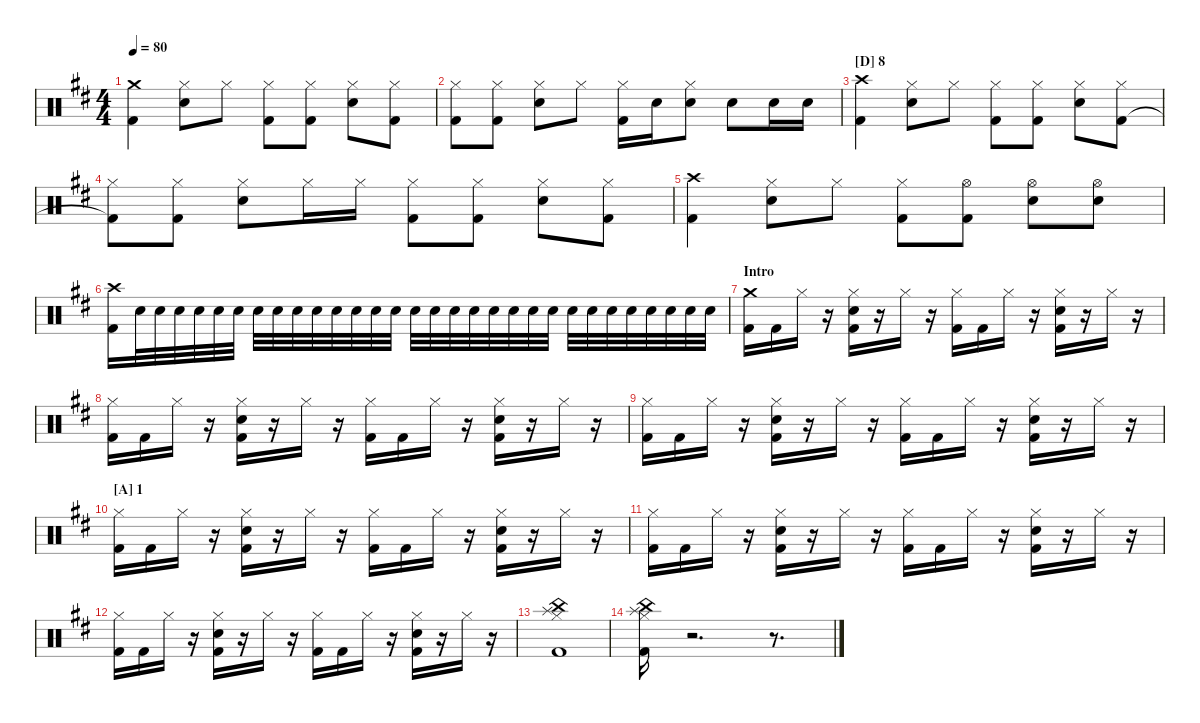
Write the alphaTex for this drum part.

\hideDynamics
\bracketExtendMode nobrackets
\singleTrackTrackNamePolicy hidden
\multiTrackTrackNamePolicy hidden
\otherSystemsTrackNameOrientation horizontal
\track ("Drumkit" "Drums") {instrument percussion}
\staff {score}
\articulation defaults
\ts (4 4)
\tempo 80
\clef neutral
\ks d
("Crash medium (hit)"{acc forcenatural} "Kick (hit) 2"{acc forcenatural}).4{dy f beam Down} ("Hi-Hat (closed)"{acc forcenatural} "Snare (hit) 2"{acc forcenatural}).8{beam Down} "Hi-Hat (closed)"{acc forcenatural}.8{beam Down} ("Hi-Hat (closed)"{acc forcenatural} "Kick (hit) 2"{acc forcenatural}).8{beam Down} ("Hi-Hat (closed)"{acc forcenatural} "Kick (hit) 2"{acc forcenatural}).8{beam Down} ("Hi-Hat (closed)"{acc forcenatural} "Snare (hit) 2"{acc forcenatural}).8{beam Down} ("Hi-Hat (closed)"{acc forcenatural} "Kick (hit) 2"{acc forcenatural}).8{beam Down} |
("Hi-Hat (closed)"{acc forcenatural} "Kick (hit) 2"{acc forcenatural}).8{beam Down} ("Hi-Hat (closed)"{acc forcenatural} "Kick (hit) 2"{acc forcenatural}).8{beam Down} ("Hi-Hat (closed)"{acc forcenatural} "Snare (hit) 2"{acc forcenatural}).8{beam Down} "Hi-Hat (closed)"{acc forcenatural}.8{beam Down} ("Hi-Hat (closed)"{acc forcenatural} "Kick (hit) 2"{acc forcenatural}).16{beam Down} "Snare (hit) 2"{acc forcenatural}.16{beam Down} ("Hi-Hat (closed)"{acc forcenatural} "Snare (hit) 2"{acc forcenatural}).8{beam Down} "Snare (hit) 2"{acc forcenatural}.8{beam Down} "Snare (hit) 2"{acc forcenatural}.16{beam Down} "Snare (hit) 2"{acc forcenatural}.16{beam Down} |
\section ("D" "8")
("Crash high (hit)"{acc forcenatural} "Kick (hit) 2"{acc forcenatural}).4{beam Down} ("Hi-Hat (closed)"{acc forcenatural} "Snare (hit) 2"{acc forcenatural}).8{beam Down} "Hi-Hat (closed)"{acc forcenatural}.8{beam Down} ("Hi-Hat (closed)"{acc forcenatural} "Kick (hit) 2"{acc forcenatural}).8{beam Down} ("Hi-Hat (closed)"{acc forcenatural} "Kick (hit) 2"{acc forcenatural}).8{beam Down} ("Hi-Hat (closed)"{acc forcenatural} "Snare (hit) 2"{acc forcenatural}).8{beam Down} ("Hi-Hat (closed)"{acc forcenatural} "Kick (hit) 2"{acc forcenatural}).8{beam Down} |
("Hi-Hat (closed)"{acc forcenatural} "Kick (hit) 2"{t acc forcenatural}).8{beam Down} ("Hi-Hat (closed)"{acc forcenatural} "Kick (hit) 2"{acc forcenatural}).8{beam Down} ("Hi-Hat (closed)"{acc forcenatural} "Snare (hit) 2"{acc forcenatural}).8{beam Down} "Hi-Hat (closed)"{acc forcenatural}.16{beam Down} "Hi-Hat (closed)"{acc forcenatural}.16{beam Down} ("Hi-Hat (closed)"{acc forcenatural} "Kick (hit) 2"{acc forcenatural}).8{beam Down} ("Hi-Hat (closed)"{acc forcenatural} "Kick (hit) 2"{acc forcenatural}).8{beam Down} ("Hi-Hat (closed)"{acc forcenatural} "Snare (hit) 2"{acc forcenatural}).8{beam Down} ("Hi-Hat (closed)"{acc forcenatural} "Kick (hit) 2"{acc forcenatural}).8{beam Down} |
("Crash high (hit)"{acc forcenatural} "Kick (hit) 2"{acc forcenatural}).4{beam Down} ("Hi-Hat (closed)"{acc forcenatural} "Snare (hit) 2"{acc forcenatural}).8{beam Down} "Hi-Hat (closed)"{acc forcenatural}.8{beam Down} ("Hi-Hat (closed)"{acc forcenatural} "Kick (hit) 2"{acc forcenatural}).8{beam Down} ("Hi-Hat (open)"{acc forcenatural} "Kick (hit) 2"{acc forcenatural}).8{beam Down} ("Hi-Hat (open)"{acc forcenatural} "Snare (hit) 2"{acc forcenatural}).8{beam Down} ("Hi-Hat (open)"{acc forcenatural} "Snare (hit) 2"{acc forcenatural}).8{beam Down} |
("Crash high (hit)"{acc forcenatural} "Kick (hit) 2"{acc forcenatural}).16{beam Down} "Snare (hit) 2"{acc forcenatural}.32{beam Down} "Snare (hit) 2"{acc forcenatural}.32{beam Down} "Snare (hit) 2"{acc forcenatural}.32{beam Down} "Snare (hit) 2"{acc forcenatural}.32{beam Down} "Snare (hit) 2"{acc forcenatural}.32{beam Down} "Snare (hit) 2"{acc forcenatural}.32{beam Down} "Snare (hit) 2"{acc forcenatural}.32{beam Down} "Snare (hit) 2"{acc forcenatural}.32{beam Down} "Snare (hit) 2"{acc forcenatural}.32{beam Down} "Snare (hit) 2"{acc forcenatural}.32{beam Down} "Snare (hit) 2"{acc forcenatural}.32{beam Down} "Snare (hit) 2"{acc forcenatural}.32{beam Down} "Snare (hit) 2"{acc forcenatural}.32{beam Down} "Snare (hit) 2"{acc forcenatural}.32{beam Down} "Snare (hit) 2"{acc forcenatural}.32{beam Down} "Snare (hit) 2"{acc forcenatural}.32{beam Down} "Snare (hit) 2"{acc forcenatural}.32{beam Down} "Snare (hit) 2"{acc forcenatural}.32{beam Down} "Snare (hit) 2"{acc forcenatural}.32{beam Down} "Snare (hit) 2"{acc forcenatural}.32{beam Down} "Snare (hit) 2"{acc forcenatural}.32{beam Down} "Snare (hit) 2"{acc forcenatural}.32{beam Down} "Snare (hit) 2"{acc forcenatural}.32{beam Down} "Snare (hit) 2"{acc forcenatural}.32{beam Down} "Snare (hit) 2"{acc forcenatural}.32{beam Down} "Snare (hit) 2"{acc forcenatural}.32{beam Down} "Snare (hit) 2"{acc forcenatural}.32{beam Down} "Snare (hit) 2"{acc forcenatural}.32{beam Down} "Snare (hit) 2"{acc forcenatural}.32{beam Down} "Snare (hit) 2"{acc forcenatural}.32{beam Down} |
\section ("" "Intro")
("Crash medium (hit)"{acc forcenatural} "Kick (hit) 2"{acc forcenatural}).16{beam Down} "Kick (hit) 2"{acc forcenatural}.16{beam Down} "Hi-Hat (closed)"{acc forcenatural}.16{beam Down} r.16{beam Down} ("Hi-Hat (closed)"{acc forcenatural} "Snare (hit) 2"{acc forcenatural} "Kick (hit) 2"{acc forcenatural}).16{beam Down} r.16{beam Down} "Hi-Hat (closed)"{acc forcenatural}.16{beam Down} r.16{beam Down} ("Hi-Hat (closed)"{acc forcenatural} "Kick (hit) 2"{acc forcenatural}).16{beam Down} "Kick (hit) 2"{acc forcenatural}.16{beam Down} "Hi-Hat (closed)"{acc forcenatural}.16{beam Down} r.16{beam Down} ("Hi-Hat (closed)"{acc forcenatural} "Snare (hit) 2"{acc forcenatural} "Kick (hit) 2"{acc forcenatural}).16{beam Down} r.16{beam Down} "Hi-Hat (closed)"{acc forcenatural}.16{beam Down} r.16{beam Down} |
("Hi-Hat (closed)"{acc forcenatural} "Kick (hit) 2"{acc forcenatural}).16{beam Down} "Kick (hit) 2"{acc forcenatural}.16{beam Down} "Hi-Hat (closed)"{acc forcenatural}.16{beam Down} r.16{beam Down} ("Hi-Hat (closed)"{acc forcenatural} "Snare (hit) 2"{acc forcenatural} "Kick (hit) 2"{acc forcenatural}).16{beam Down} r.16{beam Down} "Hi-Hat (closed)"{acc forcenatural}.16{beam Down} r.16{beam Down} ("Hi-Hat (closed)"{acc forcenatural} "Kick (hit) 2"{acc forcenatural}).16{beam Down} "Kick (hit) 2"{acc forcenatural}.16{beam Down} "Hi-Hat (closed)"{acc forcenatural}.16{beam Down} r.16{beam Down} ("Hi-Hat (closed)"{acc forcenatural} "Snare (hit) 2"{acc forcenatural} "Kick (hit) 2"{acc forcenatural}).16{beam Down} r.16{beam Down} "Hi-Hat (closed)"{acc forcenatural}.16{beam Down} r.16{beam Down} |
("Hi-Hat (closed)"{acc forcenatural} "Kick (hit) 2"{acc forcenatural}).16{beam Down} "Kick (hit) 2"{acc forcenatural}.16{beam Down} "Hi-Hat (closed)"{acc forcenatural}.16{beam Down} r.16{beam Down} ("Hi-Hat (closed)"{acc forcenatural} "Snare (hit) 2"{acc forcenatural} "Kick (hit) 2"{acc forcenatural}).16{beam Down} r.16{beam Down} "Hi-Hat (closed)"{acc forcenatural}.16{beam Down} r.16{beam Down} ("Hi-Hat (closed)"{acc forcenatural} "Kick (hit) 2"{acc forcenatural}).16{beam Down} "Kick (hit) 2"{acc forcenatural}.16{beam Down} "Hi-Hat (closed)"{acc forcenatural}.16{beam Down} r.16{beam Down} ("Hi-Hat (closed)"{acc forcenatural} "Snare (hit) 2"{acc forcenatural} "Kick (hit) 2"{acc forcenatural}).16{beam Down} r.16{beam Down} "Hi-Hat (closed)"{acc forcenatural}.16{beam Down} r.16{beam Down} |
\section ("A" "1")
("Hi-Hat (closed)"{acc forcenatural} "Kick (hit) 2"{acc forcenatural}).16{beam Down} "Kick (hit) 2"{acc forcenatural}.16{beam Down} "Hi-Hat (closed)"{acc forcenatural}.16{beam Down} r.16{beam Down} ("Hi-Hat (closed)"{acc forcenatural} "Snare (hit) 2"{acc forcenatural} "Kick (hit) 2"{acc forcenatural}).16{beam Down} r.16{beam Down} "Hi-Hat (closed)"{acc forcenatural}.16{beam Down} r.16{beam Down} ("Hi-Hat (closed)"{acc forcenatural} "Kick (hit) 2"{acc forcenatural}).16{beam Down} "Kick (hit) 2"{acc forcenatural}.16{beam Down} "Hi-Hat (closed)"{acc forcenatural}.16{beam Down} r.16{beam Down} ("Hi-Hat (closed)"{acc forcenatural} "Snare (hit) 2"{acc forcenatural} "Kick (hit) 2"{acc forcenatural}).16{beam Down} r.16{beam Down} "Hi-Hat (closed)"{acc forcenatural}.16{beam Down} r.16{beam Down} |
("Hi-Hat (closed)"{acc forcenatural} "Kick (hit) 2"{acc forcenatural}).16{beam Down} "Kick (hit) 2"{acc forcenatural}.16{beam Down} "Hi-Hat (closed)"{acc forcenatural}.16{beam Down} r.16{beam Down} ("Hi-Hat (closed)"{acc forcenatural} "Snare (hit) 2"{acc forcenatural} "Kick (hit) 2"{acc forcenatural}).16{beam Down} r.16{beam Down} "Hi-Hat (closed)"{acc forcenatural}.16{beam Down} r.16{beam Down} ("Hi-Hat (closed)"{acc forcenatural} "Kick (hit) 2"{acc forcenatural}).16{beam Down} "Kick (hit) 2"{acc forcenatural}.16{beam Down} "Hi-Hat (closed)"{acc forcenatural}.16{beam Down} r.16{beam Down} ("Hi-Hat (closed)"{acc forcenatural} "Snare (hit) 2"{acc forcenatural} "Kick (hit) 2"{acc forcenatural}).16{beam Down} r.16{beam Down} "Hi-Hat (closed)"{acc forcenatural}.16{beam Down} r.16{beam Down} |
("Hi-Hat (closed)"{acc forcenatural} "Kick (hit) 2"{acc forcenatural}).16{beam Down} "Kick (hit) 2"{acc forcenatural}.16{beam Down} "Hi-Hat (closed)"{acc forcenatural}.16{beam Down} r.16{beam Down} ("Hi-Hat (closed)"{acc forcenatural} "Snare (hit) 2"{acc forcenatural} "Kick (hit) 2"{acc forcenatural}).16{beam Down} r.16{beam Down} "Hi-Hat (closed)"{acc forcenatural}.16{beam Down} r.16{beam Down} ("Hi-Hat (closed)"{acc forcenatural} "Kick (hit) 2"{acc forcenatural}).16{beam Down} "Kick (hit) 2"{acc forcenatural}.16{beam Down} "Hi-Hat (closed)"{acc forcenatural}.16{beam Down} r.16{beam Down} ("Hi-Hat (closed)"{acc forcenatural} "Snare (hit) 2"{acc forcenatural} "Kick (hit) 2"{acc forcenatural}).16{beam Down} r.16{beam Down} "Hi-Hat (closed)"{acc forcenatural}.16{beam Down} r.16{beam Down} |
("Hi-Hat (closed)"{acc forcenatural} "Kick (hit) 2"{acc forcenatural} "Splash (hit)"{acc forcenatural} "China (hit)"{acc forcenatural}).1{beam Down} |
("Hi-Hat (closed)"{acc forcenatural} "Kick (hit) 2"{acc forcenatural} "Splash (hit)"{acc forcenatural} "China (hit)"{acc forcenatural}).16{beam Down} r.2{d beam Down} r.8{d beam Down}
